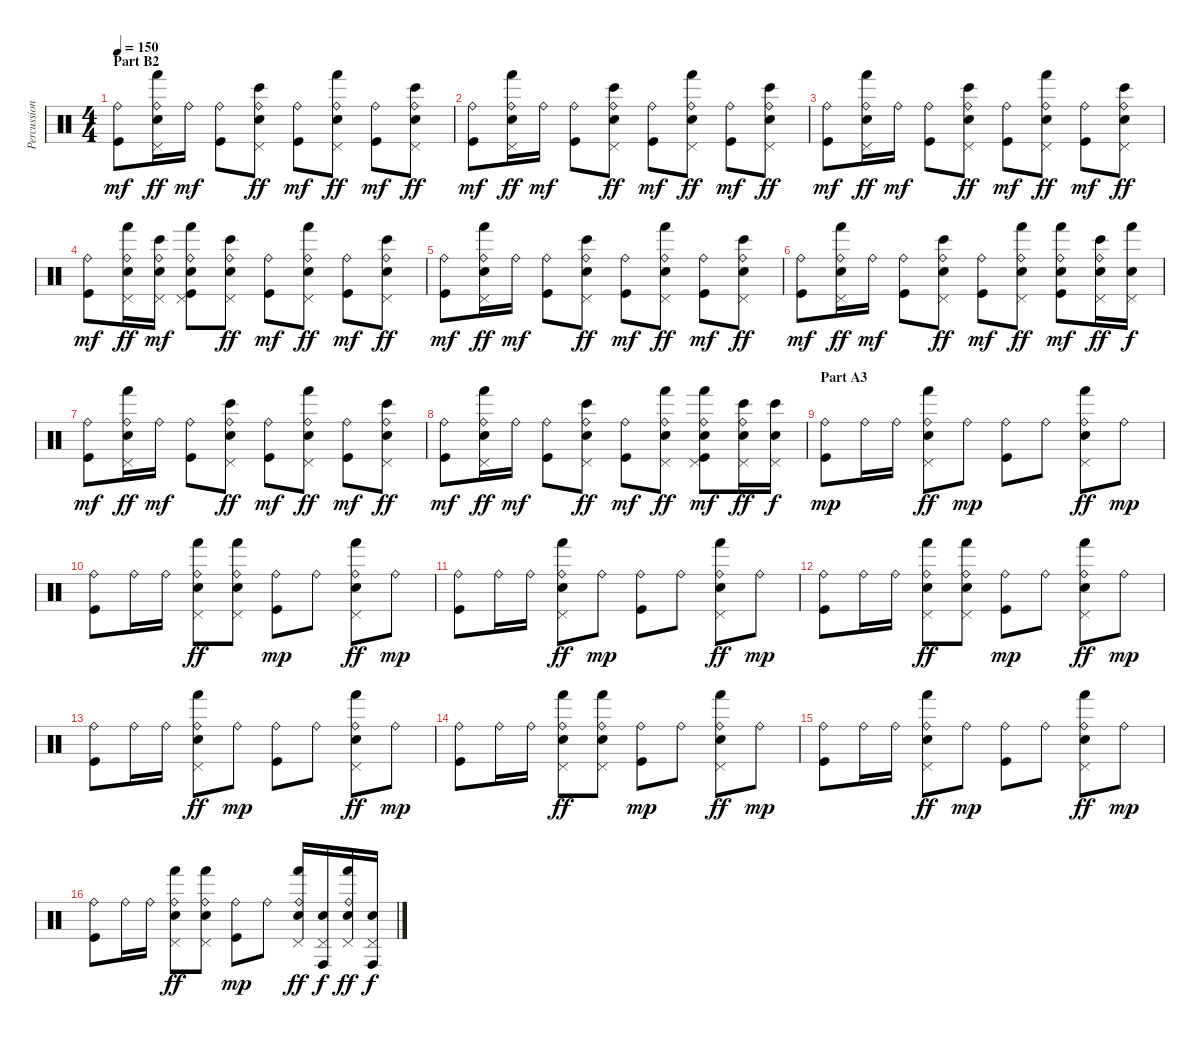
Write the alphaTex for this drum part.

\track ("Percussion" "Percussion") {instrument percussion}
\staff {score}
\articulation defaults
\ts (4 4)
\section ("" "Part B2")
\tempo 150
\clef neutral
\ks c
("Ride (bell)" "Kick (hit)").8{dy mf} ("Ride (bell)" "Pedal Hi-Hat (hit)" "Hand (hit)" "Electric Snare (hit)").16{dy ff} "Ride (bell)".16{dy mf} ("Ride (bell)" "Kick (hit)").8 ("Ride (bell)" "Pedal Hi-Hat (hit)" "Bongo High (hit)" "Electric Snare (hit)").8{dy ff} ("Ride (bell)" "Kick (hit)").8{dy mf} ("Ride (bell)" "Pedal Hi-Hat (hit)" "Hand (hit)" "Electric Snare (hit)").8{dy ff} ("Ride (bell)" "Kick (hit)").8{dy mf} ("Ride (bell)" "Pedal Hi-Hat (hit)" "Bongo High (hit)" "Electric Snare (hit)").8{dy ff} |
("Ride (bell)" "Kick (hit)").8{dy mf} ("Ride (bell)" "Pedal Hi-Hat (hit)" "Hand (hit)" "Electric Snare (hit)").16{dy ff} "Ride (bell)".16{dy mf} ("Ride (bell)" "Kick (hit)").8 ("Ride (bell)" "Pedal Hi-Hat (hit)" "Bongo High (hit)" "Electric Snare (hit)").8{dy ff} ("Ride (bell)" "Kick (hit)").8{dy mf} ("Ride (bell)" "Pedal Hi-Hat (hit)" "Hand (hit)" "Electric Snare (hit)").8{dy ff} ("Ride (bell)" "Kick (hit)").8{dy mf} ("Ride (bell)" "Pedal Hi-Hat (hit)" "Bongo High (hit)" "Electric Snare (hit)").8{dy ff} |
("Ride (bell)" "Kick (hit)").8{dy mf} ("Ride (bell)" "Pedal Hi-Hat (hit)" "Hand (hit)" "Electric Snare (hit)").16{dy ff} "Ride (bell)".16{dy mf} ("Ride (bell)" "Kick (hit)").8 ("Ride (bell)" "Pedal Hi-Hat (hit)" "Bongo High (hit)" "Electric Snare (hit)").8{dy ff} ("Ride (bell)" "Kick (hit)").8{dy mf} ("Ride (bell)" "Pedal Hi-Hat (hit)" "Hand (hit)" "Electric Snare (hit)").8{dy ff} ("Ride (bell)" "Kick (hit)").8{dy mf} ("Ride (bell)" "Pedal Hi-Hat (hit)" "Bongo High (hit)" "Electric Snare (hit)").8{dy ff} |
("Ride (bell)" "Kick (hit)").8{dy mf} ("Ride (bell)" "Pedal Hi-Hat (hit)" "Hand (hit)" "Electric Snare (hit)").16{dy ff} ("Ride (bell)" "Pedal Hi-Hat (hit)" "Bongo High (hit)" "Electric Snare (hit)").16{dy mf} ("Ride (bell)" "Pedal Hi-Hat (hit)" "Hand (hit)" "Electric Snare (hit)" "Kick (hit)").8 ("Ride (bell)" "Pedal Hi-Hat (hit)" "Bongo High (hit)" "Electric Snare (hit)").8{dy ff} ("Ride (bell)" "Kick (hit)").8{dy mf} ("Ride (bell)" "Pedal Hi-Hat (hit)" "Hand (hit)" "Electric Snare (hit)").8{dy ff} ("Ride (bell)" "Kick (hit)").8{dy mf} ("Ride (bell)" "Pedal Hi-Hat (hit)" "Bongo High (hit)" "Electric Snare (hit)").8{dy ff} |
("Ride (bell)" "Kick (hit)").8{dy mf} ("Ride (bell)" "Pedal Hi-Hat (hit)" "Hand (hit)" "Electric Snare (hit)").16{dy ff} "Ride (bell)".16{dy mf} ("Ride (bell)" "Kick (hit)").8 ("Ride (bell)" "Pedal Hi-Hat (hit)" "Bongo High (hit)" "Electric Snare (hit)").8{dy ff} ("Ride (bell)" "Kick (hit)").8{dy mf} ("Ride (bell)" "Pedal Hi-Hat (hit)" "Hand (hit)" "Electric Snare (hit)").8{dy ff} ("Ride (bell)" "Kick (hit)").8{dy mf} ("Ride (bell)" "Pedal Hi-Hat (hit)" "Bongo High (hit)" "Electric Snare (hit)").8{dy ff} |
("Ride (bell)" "Kick (hit)").8{dy mf} ("Ride (bell)" "Pedal Hi-Hat (hit)" "Hand (hit)" "Electric Snare (hit)").16{dy ff} "Ride (bell)".16{dy mf} ("Ride (bell)" "Kick (hit)").8 ("Ride (bell)" "Pedal Hi-Hat (hit)" "Bongo High (hit)" "Electric Snare (hit)").8{dy ff} ("Ride (bell)" "Kick (hit)").8{dy mf} ("Ride (bell)" "Pedal Hi-Hat (hit)" "Hand (hit)" "Electric Snare (hit)").8{dy ff} ("Ride (bell)" "Hand (hit)" "Electric Snare (hit)" "Kick (hit)").8{dy mf} ("Ride (bell)" "Pedal Hi-Hat (hit)" "Bongo High (hit)" "Electric Snare (hit)").16{dy ff} ("Pedal Hi-Hat (hit)" "Hand (hit)" "Electric Snare (hit)").16{dy f} |
("Ride (bell)" "Kick (hit)").8{dy mf} ("Ride (bell)" "Pedal Hi-Hat (hit)" "Hand (hit)" "Electric Snare (hit)").16{dy ff} "Ride (bell)".16{dy mf} ("Ride (bell)" "Kick (hit)").8 ("Ride (bell)" "Pedal Hi-Hat (hit)" "Bongo High (hit)" "Electric Snare (hit)").8{dy ff} ("Ride (bell)" "Kick (hit)").8{dy mf} ("Ride (bell)" "Pedal Hi-Hat (hit)" "Hand (hit)" "Electric Snare (hit)").8{dy ff} ("Ride (bell)" "Kick (hit)").8{dy mf} ("Ride (bell)" "Pedal Hi-Hat (hit)" "Bongo High (hit)" "Electric Snare (hit)").8{dy ff} |
("Ride (bell)" "Kick (hit)").8{dy mf} ("Ride (bell)" "Pedal Hi-Hat (hit)" "Hand (hit)" "Electric Snare (hit)").16{dy ff} "Ride (bell)".16{dy mf} ("Ride (bell)" "Kick (hit)").8 ("Ride (bell)" "Pedal Hi-Hat (hit)" "Bongo High (hit)" "Electric Snare (hit)").8{dy ff} ("Ride (bell)" "Kick (hit)").8{dy mf} ("Ride (bell)" "Pedal Hi-Hat (hit)" "Hand (hit)" "Electric Snare (hit)").8{dy ff} ("Ride (bell)" "Pedal Hi-Hat (hit)" "Hand (hit)" "Electric Snare (hit)" "Kick (hit)").8{dy mf} ("Ride (bell)" "Pedal Hi-Hat (hit)" "Bongo High (hit)" "Electric Snare (hit)").16{dy ff} ("Pedal Hi-Hat (hit)" "Bongo High (hit)" "Electric Snare (hit)").16{dy f} |
\section ("" "Part A3")
("Ride (bell)" "Kick (hit)").8{dy mp} "Ride (bell)".16 "Ride (bell)".16 ("Ride (bell)" "Pedal Hi-Hat (hit)" "Hand (hit)" "Electric Snare (hit)").8{dy ff} "Ride (bell)".8{dy mp} ("Ride (bell)" "Kick (hit)").8 "Ride (bell)".8 ("Ride (bell)" "Pedal Hi-Hat (hit)" "Hand (hit)" "Electric Snare (hit)").8{dy ff} "Ride (bell)".8{dy mp} |
("Ride (bell)" "Kick (hit)").8 "Ride (bell)".16 "Ride (bell)".16 ("Ride (bell)" "Pedal Hi-Hat (hit)" "Hand (hit)" "Electric Snare (hit)").8{dy ff} ("Ride (bell)" "Pedal Hi-Hat (hit)" "Hand (hit)" "Electric Snare (hit)").8 ("Ride (bell)" "Kick (hit)").8{dy mp} "Ride (bell)".8 ("Ride (bell)" "Pedal Hi-Hat (hit)" "Hand (hit)" "Electric Snare (hit)").8{dy ff} "Ride (bell)".8{dy mp} |
("Ride (bell)" "Kick (hit)").8 "Ride (bell)".16 "Ride (bell)".16 ("Ride (bell)" "Pedal Hi-Hat (hit)" "Hand (hit)" "Electric Snare (hit)").8{dy ff} "Ride (bell)".8{dy mp} ("Ride (bell)" "Kick (hit)").8 "Ride (bell)".8 ("Ride (bell)" "Pedal Hi-Hat (hit)" "Hand (hit)" "Electric Snare (hit)").8{dy ff} "Ride (bell)".8{dy mp} |
("Ride (bell)" "Kick (hit)").8 "Ride (bell)".16 "Ride (bell)".16 ("Ride (bell)" "Pedal Hi-Hat (hit)" "Hand (hit)" "Electric Snare (hit)").8{dy ff} ("Ride (bell)" "Pedal Hi-Hat (hit)" "Hand (hit)" "Electric Snare (hit)").8 ("Ride (bell)" "Kick (hit)").8{dy mp} "Ride (bell)".8 ("Ride (bell)" "Pedal Hi-Hat (hit)" "Hand (hit)" "Electric Snare (hit)").8{dy ff} "Ride (bell)".8{dy mp} |
("Ride (bell)" "Kick (hit)").8 "Ride (bell)".16 "Ride (bell)".16 ("Ride (bell)" "Pedal Hi-Hat (hit)" "Hand (hit)" "Electric Snare (hit)").8{dy ff} "Ride (bell)".8{dy mp} ("Ride (bell)" "Kick (hit)").8 "Ride (bell)".8 ("Ride (bell)" "Pedal Hi-Hat (hit)" "Hand (hit)" "Electric Snare (hit)").8{dy ff} "Ride (bell)".8{dy mp} |
("Ride (bell)" "Kick (hit)").8 "Ride (bell)".16 "Ride (bell)".16 ("Ride (bell)" "Pedal Hi-Hat (hit)" "Hand (hit)" "Electric Snare (hit)").8{dy ff} ("Ride (bell)" "Pedal Hi-Hat (hit)" "Hand (hit)" "Electric Snare (hit)").8 ("Ride (bell)" "Kick (hit)").8{dy mp} "Ride (bell)".8 ("Ride (bell)" "Pedal Hi-Hat (hit)" "Hand (hit)" "Electric Snare (hit)").8{dy ff} "Ride (bell)".8{dy mp} |
("Ride (bell)" "Kick (hit)").8 "Ride (bell)".16 "Ride (bell)".16 ("Ride (bell)" "Pedal Hi-Hat (hit)" "Hand (hit)" "Electric Snare (hit)").8{dy ff} "Ride (bell)".8{dy mp} ("Ride (bell)" "Kick (hit)").8 "Ride (bell)".8 ("Ride (bell)" "Pedal Hi-Hat (hit)" "Hand (hit)" "Electric Snare (hit)").8{dy ff} "Ride (bell)".8{dy mp} |
("Ride (bell)" "Kick (hit)").8 "Ride (bell)".16 "Ride (bell)".16 ("Ride (bell)" "Pedal Hi-Hat (hit)" "Hand (hit)" "Electric Snare (hit)").8{dy ff} ("Ride (bell)" "Pedal Hi-Hat (hit)" "Hand (hit)" "Electric Snare (hit)").8 ("Ride (bell)" "Kick (hit)").8{dy mp} "Ride (bell)".8 ("Ride (bell)" "Pedal Hi-Hat (hit)" "Hand (hit)" "Electric Snare (hit)").16{dy ff} ("Pedal Hi-Hat (hit)" "Conga high (hit)" "Electric Snare (hit)").16{dy f} ("Ride (bell)" "Pedal Hi-Hat (hit)" "Hand (hit)" "Electric Snare (hit)").16{dy ff} ("Pedal Hi-Hat (hit)" "Conga high (hit)" "Electric Snare (hit)").16{dy f}
